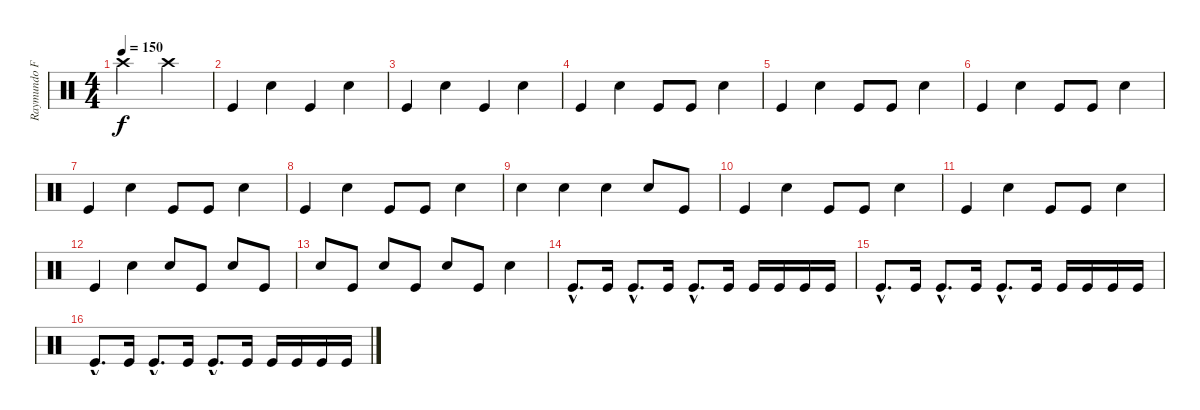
\track ("Raymundo Fajardo" "Raymundo F") {instrument percussion}
\staff {score}
\articulation defaults
\ts (4 4)
\tempo 150
\clef neutral
\ks c "Crash high (hit)".2{dy f} "Crash high (hit)".2
|
"Kick (hit)".4 "Electric Snare (hit)".4 "Kick (hit)".4 "Electric Snare (hit)".4 |
"Kick (hit)".4 "Electric Snare (hit)".4 "Kick (hit)".4 "Electric Snare (hit)".4 |
"Kick (hit)".4 "Electric Snare (hit)".4 "Kick (hit)".8 "Kick (hit)".8 "Electric Snare (hit)".4 |
"Kick (hit)".4 "Electric Snare (hit)".4 "Kick (hit)".8 "Kick (hit)".8 "Electric Snare (hit)".4 |
"Kick (hit)".4 "Electric Snare (hit)".4 "Kick (hit)".8 "Kick (hit)".8 "Electric Snare (hit)".4 |
"Kick (hit)".4 "Electric Snare (hit)".4 "Kick (hit)".8 "Kick (hit)".8 "Electric Snare (hit)".4 |
"Kick (hit)".4 "Electric Snare (hit)".4 "Kick (hit)".8 "Kick (hit)".8 "Electric Snare (hit)".4 |
"Electric Snare (hit)".4 "Electric Snare (hit)".4 "Electric Snare (hit)".4 "Electric Snare (hit)".8 "Kick (hit)".8 |
"Kick (hit)".4 "Electric Snare (hit)".4 "Kick (hit)".8 "Kick (hit)".8 "Electric Snare (hit)".4 |
"Kick (hit)".4 "Electric Snare (hit)".4 "Kick (hit)".8 "Kick (hit)".8 "Electric Snare (hit)".4 |
"Kick (hit)".4 "Electric Snare (hit)".4 "Electric Snare (hit)".8 "Kick (hit)".8 "Electric Snare (hit)".8 "Kick (hit)".8 |
"Electric Snare (hit)".8 "Kick (hit)".8 "Electric Snare (hit)".8 "Kick (hit)".8 "Electric Snare (hit)".8 "Kick (hit)".8 "Electric Snare (hit)".4 |
"Kick (hit)"{hac}.8{d} "Kick (hit)".16 "Kick (hit)"{hac}.8{d} "Kick (hit)".16 "Kick (hit)"{hac}.8{d} "Kick (hit)".16 "Kick (hit)".16 "Kick (hit)".16 "Kick (hit)".16 "Kick (hit)".16 |
"Kick (hit)"{hac}.8{d} "Kick (hit)".16 "Kick (hit)"{hac}.8{d} "Kick (hit)".16 "Kick (hit)"{hac}.8{d} "Kick (hit)".16 "Kick (hit)".16 "Kick (hit)".16 "Kick (hit)".16 "Kick (hit)".16 |
"Kick (hit)"{hac}.8{d} "Kick (hit)".16 "Kick (hit)"{hac}.8{d} "Kick (hit)".16 "Kick (hit)"{hac}.8{d} "Kick (hit)".16 "Kick (hit)".16 "Kick (hit)".16 "Kick (hit)".16 "Kick (hit)".16
